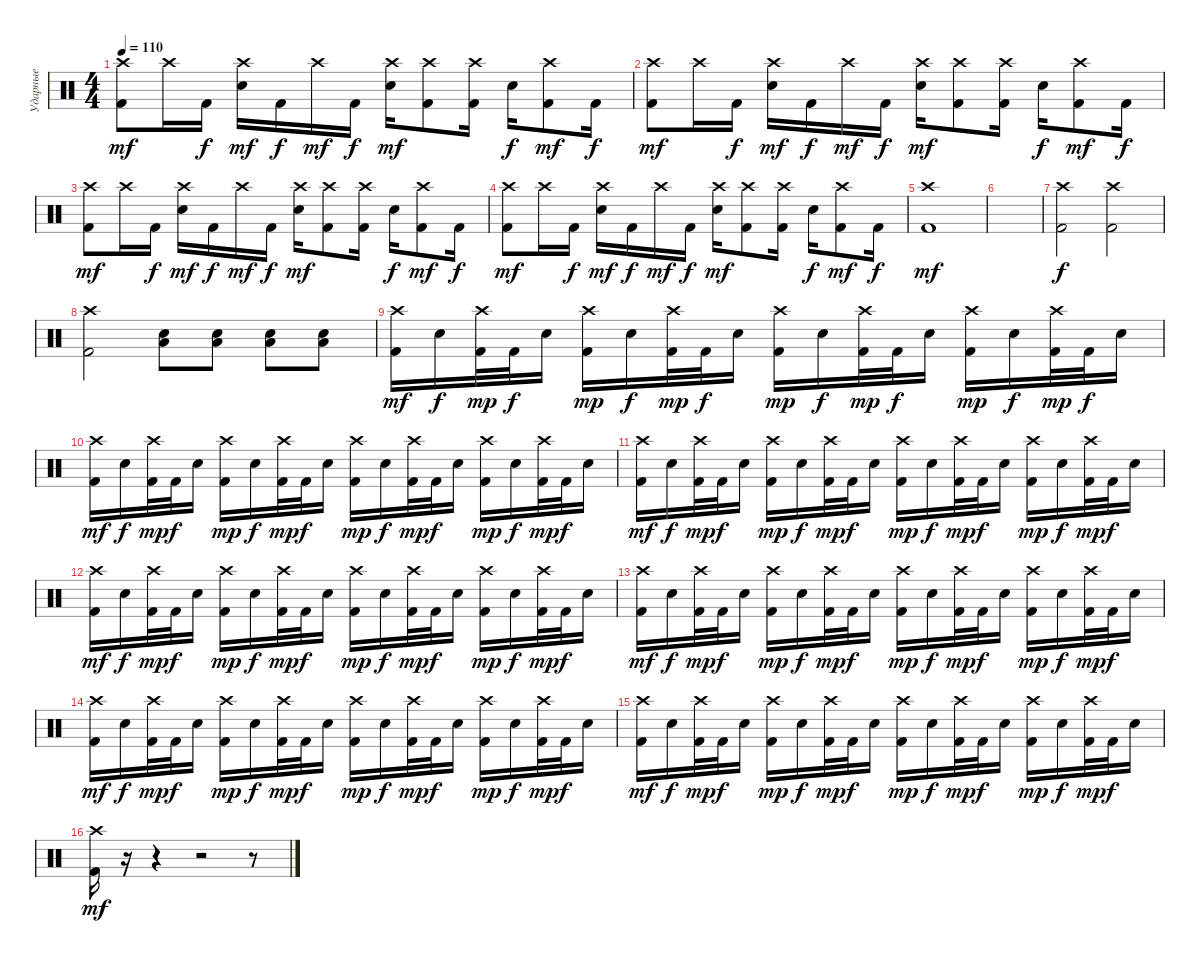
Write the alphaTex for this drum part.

\track ("Ударные" "Ударные") {instrument percussion}
\staff {score}
\articulation defaults
\ts (4 4)
\tempo 110
\clef neutral
\ks c
("Crash high (hit)" "Kick (hit) 2").8{dy mf} "Crash high (hit)".16 "Kick (hit) 2".16{dy f} ("Crash high (hit)" "Electric Snare (hit)").16{dy mf} "Kick (hit) 2".16{dy f} "Crash high (hit)".16{dy mf} "Kick (hit) 2".16{dy f} ("Crash high (hit)" "Electric Snare (hit)").16{dy mf} ("Crash high (hit)" "Kick (hit) 2").8 ("Crash high (hit)" "Kick (hit) 2").16 "Electric Snare (hit)".16{dy f} ("Crash high (hit)" "Kick (hit) 2").8{dy mf} "Kick (hit) 2".16{dy f} |
("Crash high (hit)" "Kick (hit) 2").8{dy mf} "Crash high (hit)".16 "Kick (hit) 2".16{dy f} ("Crash high (hit)" "Electric Snare (hit)").16{dy mf} "Kick (hit) 2".16{dy f} "Crash high (hit)".16{dy mf} "Kick (hit) 2".16{dy f} ("Crash high (hit)" "Electric Snare (hit)").16{dy mf} ("Crash high (hit)" "Kick (hit) 2").8 ("Crash high (hit)" "Kick (hit) 2").16 "Electric Snare (hit)".16{dy f} ("Crash high (hit)" "Kick (hit) 2").8{dy mf} "Kick (hit) 2".16{dy f} |
("Crash high (hit)" "Kick (hit) 2").8{dy mf} "Crash high (hit)".16 "Kick (hit) 2".16{dy f} ("Crash high (hit)" "Electric Snare (hit)").16{dy mf} "Kick (hit) 2".16{dy f} "Crash high (hit)".16{dy mf} "Kick (hit) 2".16{dy f} ("Crash high (hit)" "Electric Snare (hit)").16{dy mf} ("Crash high (hit)" "Kick (hit) 2").8 ("Crash high (hit)" "Kick (hit) 2").16 "Electric Snare (hit)".16{dy f} ("Crash high (hit)" "Kick (hit) 2").8{dy mf} "Kick (hit) 2".16{dy f} |
("Crash high (hit)" "Kick (hit) 2").8{dy mf} "Crash high (hit)".16 "Kick (hit) 2".16{dy f} ("Crash high (hit)" "Electric Snare (hit)").16{dy mf} "Kick (hit) 2".16{dy f} "Crash high (hit)".16{dy mf} "Kick (hit) 2".16{dy f} ("Crash high (hit)" "Electric Snare (hit)").16{dy mf} ("Crash high (hit)" "Kick (hit) 2").8 ("Crash high (hit)" "Kick (hit) 2").16 "Electric Snare (hit)".16{dy f} ("Crash high (hit)" "Kick (hit) 2").8{dy mf} "Kick (hit) 2".16{dy f} |
("Crash high (hit)" "Kick (hit) 2").1{dy mf} |
|
("Crash high (hit)" "Kick (hit) 2").2{dy f} ("Crash high (hit)" "Kick (hit) 2").2 |
("Crash high (hit)" "Kick (hit) 2").2 ("Low Tom (hit)" "Electric Snare (hit)").8 ("Low Tom (hit)" "Electric Snare (hit)").8 ("Low Tom (hit)" "Electric Snare (hit)").8 ("Low Tom (hit)" "Electric Snare (hit)").8 |
("Crash high (hit)" "Kick (hit) 2").16{dy mf} "Electric Snare (hit)".16{dy f} ("Crash high (hit)" "Kick (hit) 2").32{dy mp} "Kick (hit) 2".32{dy f} "Electric Snare (hit)".16 ("Crash high (hit)" "Kick (hit) 2").16{dy mp} "Electric Snare (hit)".16{dy f} ("Crash high (hit)" "Kick (hit) 2").32{dy mp} "Kick (hit) 2".32{dy f} "Electric Snare (hit)".16 ("Crash high (hit)" "Kick (hit) 2").16{dy mp} "Electric Snare (hit)".16{dy f} ("Crash high (hit)" "Kick (hit) 2").32{dy mp} "Kick (hit) 2".32{dy f} "Electric Snare (hit)".16 ("Crash high (hit)" "Kick (hit) 2").16{dy mp} "Electric Snare (hit)".16{dy f} ("Crash high (hit)" "Kick (hit) 2").32{dy mp} "Kick (hit) 2".32{dy f} "Electric Snare (hit)".16 |
("Crash high (hit)" "Kick (hit) 2").16{dy mf} "Electric Snare (hit)".16{dy f} ("Crash high (hit)" "Kick (hit) 2").32{dy mp} "Kick (hit) 2".32{dy f} "Electric Snare (hit)".16 ("Crash high (hit)" "Kick (hit) 2").16{dy mp} "Electric Snare (hit)".16{dy f} ("Crash high (hit)" "Kick (hit) 2").32{dy mp} "Kick (hit) 2".32{dy f} "Electric Snare (hit)".16 ("Crash high (hit)" "Kick (hit) 2").16{dy mp} "Electric Snare (hit)".16{dy f} ("Crash high (hit)" "Kick (hit) 2").32{dy mp} "Kick (hit) 2".32{dy f} "Electric Snare (hit)".16 ("Crash high (hit)" "Kick (hit) 2").16{dy mp} "Electric Snare (hit)".16{dy f} ("Crash high (hit)" "Kick (hit) 2").32{dy mp} "Kick (hit) 2".32{dy f} "Electric Snare (hit)".16 |
("Crash high (hit)" "Kick (hit) 2").16{dy mf} "Electric Snare (hit)".16{dy f} ("Crash high (hit)" "Kick (hit) 2").32{dy mp} "Kick (hit) 2".32{dy f} "Electric Snare (hit)".16 ("Crash high (hit)" "Kick (hit) 2").16{dy mp} "Electric Snare (hit)".16{dy f} ("Crash high (hit)" "Kick (hit) 2").32{dy mp} "Kick (hit) 2".32{dy f} "Electric Snare (hit)".16 ("Crash high (hit)" "Kick (hit) 2").16{dy mp} "Electric Snare (hit)".16{dy f} ("Crash high (hit)" "Kick (hit) 2").32{dy mp} "Kick (hit) 2".32{dy f} "Electric Snare (hit)".16 ("Crash high (hit)" "Kick (hit) 2").16{dy mp} "Electric Snare (hit)".16{dy f} ("Crash high (hit)" "Kick (hit) 2").32{dy mp} "Kick (hit) 2".32{dy f} "Electric Snare (hit)".16 |
("Crash high (hit)" "Kick (hit) 2").16{dy mf} "Electric Snare (hit)".16{dy f} ("Crash high (hit)" "Kick (hit) 2").32{dy mp} "Kick (hit) 2".32{dy f} "Electric Snare (hit)".16 ("Crash high (hit)" "Kick (hit) 2").16{dy mp} "Electric Snare (hit)".16{dy f} ("Crash high (hit)" "Kick (hit) 2").32{dy mp} "Kick (hit) 2".32{dy f} "Electric Snare (hit)".16 ("Crash high (hit)" "Kick (hit) 2").16{dy mp} "Electric Snare (hit)".16{dy f} ("Crash high (hit)" "Kick (hit) 2").32{dy mp} "Kick (hit) 2".32{dy f} "Electric Snare (hit)".16 ("Crash high (hit)" "Kick (hit) 2").16{dy mp} "Electric Snare (hit)".16{dy f} ("Crash high (hit)" "Kick (hit) 2").32{dy mp} "Kick (hit) 2".32{dy f} "Electric Snare (hit)".16 |
("Crash high (hit)" "Kick (hit) 2").16{dy mf} "Electric Snare (hit)".16{dy f} ("Crash high (hit)" "Kick (hit) 2").32{dy mp} "Kick (hit) 2".32{dy f} "Electric Snare (hit)".16 ("Crash high (hit)" "Kick (hit) 2").16{dy mp} "Electric Snare (hit)".16{dy f} ("Crash high (hit)" "Kick (hit) 2").32{dy mp} "Kick (hit) 2".32{dy f} "Electric Snare (hit)".16 ("Crash high (hit)" "Kick (hit) 2").16{dy mp} "Electric Snare (hit)".16{dy f} ("Crash high (hit)" "Kick (hit) 2").32{dy mp} "Kick (hit) 2".32{dy f} "Electric Snare (hit)".16 ("Crash high (hit)" "Kick (hit) 2").16{dy mp} "Electric Snare (hit)".16{dy f} ("Crash high (hit)" "Kick (hit) 2").32{dy mp} "Kick (hit) 2".32{dy f} "Electric Snare (hit)".16 |
("Crash high (hit)" "Kick (hit) 2").16{dy mf} "Electric Snare (hit)".16{dy f} ("Crash high (hit)" "Kick (hit) 2").32{dy mp} "Kick (hit) 2".32{dy f} "Electric Snare (hit)".16 ("Crash high (hit)" "Kick (hit) 2").16{dy mp} "Electric Snare (hit)".16{dy f} ("Crash high (hit)" "Kick (hit) 2").32{dy mp} "Kick (hit) 2".32{dy f} "Electric Snare (hit)".16 ("Crash high (hit)" "Kick (hit) 2").16{dy mp} "Electric Snare (hit)".16{dy f} ("Crash high (hit)" "Kick (hit) 2").32{dy mp} "Kick (hit) 2".32{dy f} "Electric Snare (hit)".16 ("Crash high (hit)" "Kick (hit) 2").16{dy mp} "Electric Snare (hit)".16{dy f} ("Crash high (hit)" "Kick (hit) 2").32{dy mp} "Kick (hit) 2".32{dy f} "Electric Snare (hit)".16 |
("Crash high (hit)" "Kick (hit) 2").16{dy mf} "Electric Snare (hit)".16{dy f} ("Crash high (hit)" "Kick (hit) 2").32{dy mp} "Kick (hit) 2".32{dy f} "Electric Snare (hit)".16 ("Crash high (hit)" "Kick (hit) 2").16{dy mp} "Electric Snare (hit)".16{dy f} ("Crash high (hit)" "Kick (hit) 2").32{dy mp} "Kick (hit) 2".32{dy f} "Electric Snare (hit)".16 ("Crash high (hit)" "Kick (hit) 2").16{dy mp} "Electric Snare (hit)".16{dy f} ("Crash high (hit)" "Kick (hit) 2").32{dy mp} "Kick (hit) 2".32{dy f} "Electric Snare (hit)".16 ("Crash high (hit)" "Kick (hit) 2").16{dy mp} "Electric Snare (hit)".16{dy f} ("Crash high (hit)" "Kick (hit) 2").32{dy mp} "Kick (hit) 2".32{dy f} "Electric Snare (hit)".16 |
("Crash high (hit)" "Kick (hit) 2").16{dy mf} r.16 r.4 r.2 r.8
